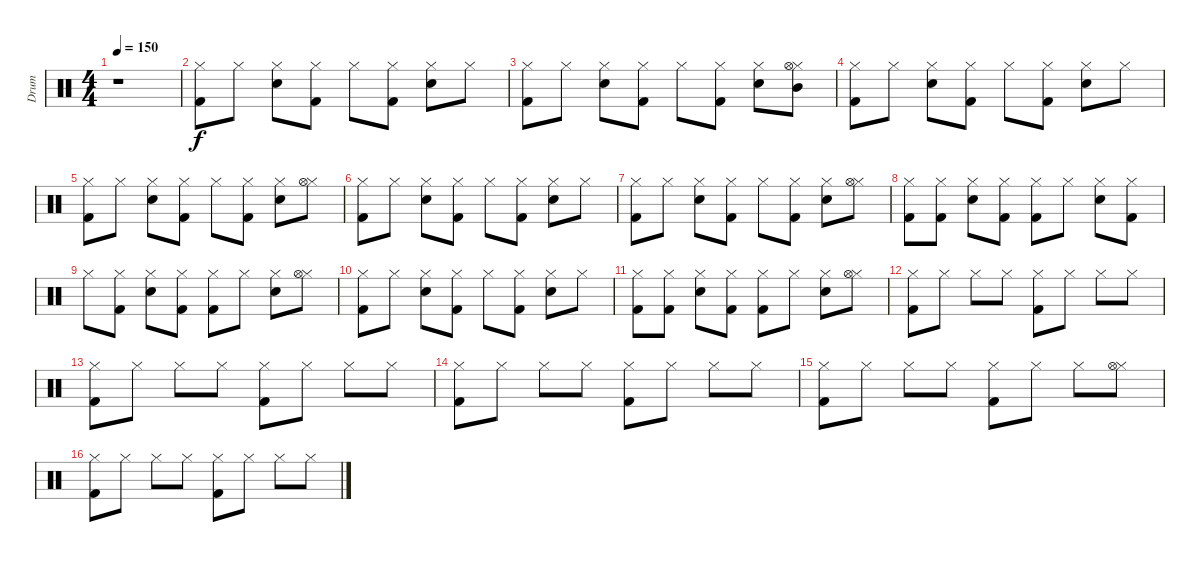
\track ("Drum" "Drum") {instrument percussion}
\staff {score}
\articulation defaults
\ts (4 4)
\tempo 150
\clef neutral
\ks c
r.1{dy f} |
("Kick (hit) 2" "Hi-Hat (closed)").8 "Hi-Hat (closed)".8 ("Snare (hit) 2" "Hi-Hat (closed)").8 ("Kick (hit) 2" "Hi-Hat (closed)").8 "Hi-Hat (closed)".8 ("Kick (hit) 2" "Hi-Hat (closed)").8 ("Snare (hit) 2" "Hi-Hat (closed)").8 "Hi-Hat (closed)".8 |
("Kick (hit) 2" "Hi-Hat (closed)").8 "Hi-Hat (closed)".8 ("Snare (hit) 2" "Hi-Hat (closed)").8 ("Kick (hit) 2" "Hi-Hat (closed)").8 "Hi-Hat (closed)".8 ("Hi-Hat (closed)" "Kick (hit) 2").8 ("Snare (hit) 2" "Hi-Hat (closed)").8 ("Hi-Hat (closed)" "Hi-Hat (open)" "Mid Tom (hit)").8 |
("Kick (hit) 2" "Hi-Hat (closed)").8 "Hi-Hat (closed)".8 ("Snare (hit) 2" "Hi-Hat (closed)").8 ("Hi-Hat (closed)" "Kick (hit) 2").8 "Hi-Hat (closed)".8 ("Kick (hit) 2" "Hi-Hat (closed)").8 ("Snare (hit) 2" "Hi-Hat (closed)").8 "Hi-Hat (closed)".8 |
("Kick (hit) 2" "Hi-Hat (closed)").8 "Hi-Hat (closed)".8 ("Snare (hit) 2" "Hi-Hat (closed)").8 ("Kick (hit) 2" "Hi-Hat (closed)").8 "Hi-Hat (closed)".8 ("Hi-Hat (closed)" "Kick (hit) 2").8 ("Snare (hit) 2" "Hi-Hat (closed)").8 ("Hi-Hat (closed)" "Hi-Hat (open)").8 |
("Kick (hit) 2" "Hi-Hat (closed)").8 "Hi-Hat (closed)".8 ("Hi-Hat (closed)" "Snare (hit) 2").8 ("Kick (hit) 2" "Hi-Hat (closed)").8 "Hi-Hat (closed)".8 ("Kick (hit) 2" "Hi-Hat (closed)").8 ("Snare (hit) 2" "Hi-Hat (closed)").8 "Hi-Hat (closed)".8 |
("Kick (hit) 2" "Hi-Hat (closed)").8 "Hi-Hat (closed)".8 ("Hi-Hat (closed)" "Snare (hit) 2").8 ("Kick (hit) 2" "Hi-Hat (closed)").8 "Hi-Hat (closed)".8 ("Hi-Hat (closed)" "Kick (hit) 2").8 ("Snare (hit) 2" "Hi-Hat (closed)").8 ("Hi-Hat (closed)" "Hi-Hat (open)").8 |
("Kick (hit) 2" "Hi-Hat (closed)").8 ("Hi-Hat (closed)" "Kick (hit) 2").8 ("Snare (hit) 2" "Hi-Hat (closed)").8 ("Hi-Hat (closed)" "Kick (hit) 2").8 ("Kick (hit) 2" "Hi-Hat (closed)").8 "Hi-Hat (closed)".8 ("Snare (hit) 2" "Hi-Hat (closed)").8 ("Kick (hit) 2" "Hi-Hat (closed)").8 |
"Hi-Hat (closed)".8 ("Hi-Hat (closed)" "Kick (hit) 2").8 ("Hi-Hat (closed)" "Snare (hit) 2").8 ("Hi-Hat (closed)" "Kick (hit) 2").8 ("Kick (hit) 2" "Hi-Hat (closed)").8 "Hi-Hat (closed)".8 ("Snare (hit) 2" "Hi-Hat (closed)").8 ("Hi-Hat (closed)" "Hi-Hat (open)").8 |
("Kick (hit) 2" "Hi-Hat (closed)").8 "Hi-Hat (closed)".8 ("Hi-Hat (closed)" "Snare (hit) 2").8 ("Kick (hit) 2" "Hi-Hat (closed)").8 "Hi-Hat (closed)".8 ("Kick (hit) 2" "Hi-Hat (closed)").8 ("Snare (hit) 2" "Hi-Hat (closed)").8 "Hi-Hat (closed)".8 |
("Kick (hit) 2" "Hi-Hat (closed)").8 ("Kick (hit) 2" "Hi-Hat (closed)").8 ("Snare (hit) 2" "Hi-Hat (closed)").8 ("Kick (hit) 2" "Hi-Hat (closed)").8 ("Kick (hit) 2" "Hi-Hat (closed)").8 "Hi-Hat (closed)".8 ("Snare (hit) 2" "Hi-Hat (closed)").8 ("Hi-Hat (closed)" "Hi-Hat (open)").8 |
("Kick (hit) 2" "Hi-Hat (closed)").8 "Hi-Hat (closed)".8 "Hi-Hat (closed)".8 "Hi-Hat (closed)".8 ("Kick (hit) 2" "Hi-Hat (closed)").8 "Hi-Hat (closed)".8 "Hi-Hat (closed)".8 "Hi-Hat (closed)".8 |
("Hi-Hat (closed)" "Kick (hit) 2").8 "Hi-Hat (closed)".8 "Hi-Hat (closed)".8 "Hi-Hat (closed)".8 ("Kick (hit) 2" "Hi-Hat (closed)").8 "Hi-Hat (closed)".8 "Hi-Hat (closed)".8 "Hi-Hat (closed)".8 |
("Kick (hit) 2" "Hi-Hat (closed)").8 "Hi-Hat (closed)".8 "Hi-Hat (closed)".8 "Hi-Hat (closed)".8 ("Kick (hit) 2" "Hi-Hat (closed)").8 "Hi-Hat (closed)".8 "Hi-Hat (closed)".8 "Hi-Hat (closed)".8 |
("Kick (hit) 2" "Hi-Hat (closed)").8 "Hi-Hat (closed)".8 "Hi-Hat (closed)".8 "Hi-Hat (closed)".8 ("Kick (hit) 2" "Hi-Hat (closed)").8 "Hi-Hat (closed)".8 "Hi-Hat (closed)".8 ("Hi-Hat (closed)" "Hi-Hat (open)").8 |
("Kick (hit) 2" "Hi-Hat (closed)").8 "Hi-Hat (closed)".8 "Hi-Hat (closed)".8 "Hi-Hat (closed)".8 ("Kick (hit) 2" "Hi-Hat (closed)").8 "Hi-Hat (closed)".8 "Hi-Hat (closed)".8 "Hi-Hat (closed)".8
